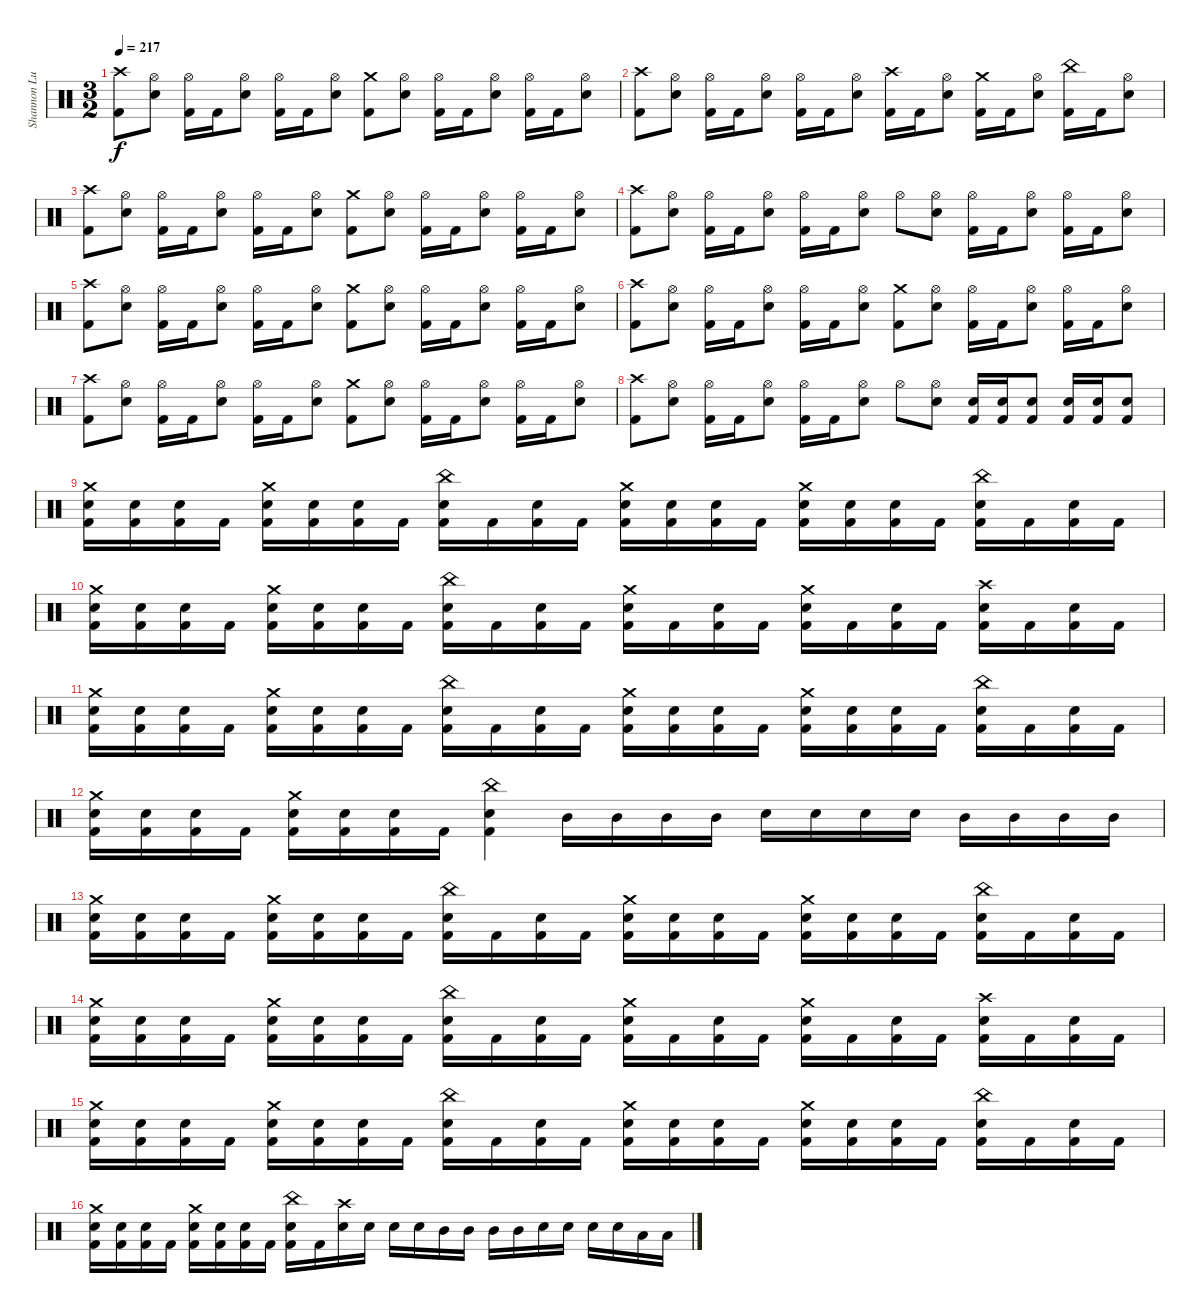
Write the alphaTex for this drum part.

\track ("Shannon Lucas [Drums (Since 2007)]" "Shannon Lu") {instrument percussion}
\staff {score}
\articulation defaults
\ts (3 2)
\tempo 217
\clef neutral
\ks c
("Crash high (hit)" "Kick (hit) 2").8{dy f} ("Hi-Hat (open)" "Snare (hit) 2").8 ("Hi-Hat (open)" "Kick (hit) 2").16 "Kick (hit) 2".16 ("Hi-Hat (open)" "Snare (hit) 2").8 ("Hi-Hat (open)" "Kick (hit) 2").16 "Kick (hit) 2".16 ("Hi-Hat (open)" "Snare (hit) 2").8 ("Crash medium (hit)" "Kick (hit) 2").8 ("Hi-Hat (open)" "Snare (hit) 2").8 ("Hi-Hat (open)" "Kick (hit) 2").16 "Kick (hit) 2".16 ("Hi-Hat (open)" "Snare (hit) 2").8 ("Hi-Hat (open)" "Kick (hit) 2").16 "Kick (hit) 2".16 ("Hi-Hat (open)" "Snare (hit) 2").8 |
("Crash high (hit)" "Kick (hit) 2").8 ("Hi-Hat (open)" "Snare (hit) 2").8 ("Hi-Hat (open)" "Kick (hit) 2").16 "Kick (hit) 2".16 ("Hi-Hat (open)" "Snare (hit) 2").8 ("Hi-Hat (open)" "Kick (hit) 2").16 "Kick (hit) 2".16 ("Hi-Hat (open)" "Snare (hit) 2").8 ("Crash high (hit)" "Kick (hit) 2").16 "Kick (hit) 2".16 ("Hi-Hat (open)" "Snare (hit) 2").8 ("Crash medium (hit)" "Kick (hit) 2").16 "Kick (hit) 2".16 ("Hi-Hat (open)" "Snare (hit) 2").8 ("China (hit)" "Kick (hit) 2").16 "Kick (hit) 2".16 ("Hi-Hat (open)" "Snare (hit) 2").8 |
("Crash high (hit)" "Kick (hit) 2").8 ("Hi-Hat (open)" "Snare (hit) 2").8 ("Hi-Hat (open)" "Kick (hit) 2").16 "Kick (hit) 2".16 ("Hi-Hat (open)" "Snare (hit) 2").8 ("Hi-Hat (open)" "Kick (hit) 2").16 "Kick (hit) 2".16 ("Hi-Hat (open)" "Snare (hit) 2").8 ("Crash medium (hit)" "Kick (hit) 2").8 ("Hi-Hat (open)" "Snare (hit) 2").8 ("Hi-Hat (open)" "Kick (hit) 2").16 "Kick (hit) 2".16 ("Hi-Hat (open)" "Snare (hit) 2").8 ("Hi-Hat (open)" "Kick (hit) 2").16 "Kick (hit) 2".16 ("Hi-Hat (open)" "Snare (hit) 2").8 |
("Crash high (hit)" "Kick (hit) 2").8 ("Hi-Hat (open)" "Snare (hit) 2").8 ("Hi-Hat (open)" "Kick (hit) 2").16 "Kick (hit) 2".16 ("Hi-Hat (open)" "Snare (hit) 2").8 ("Hi-Hat (open)" "Kick (hit) 2").16 "Kick (hit) 2".16 ("Hi-Hat (open)" "Snare (hit) 2").8 "Hi-Hat (open)".8 ("Hi-Hat (open)" "Snare (hit) 2").8 ("Hi-Hat (open)" "Kick (hit) 2").16 "Kick (hit) 2".16 ("Hi-Hat (open)" "Snare (hit) 2").8 ("Hi-Hat (open)" "Kick (hit) 2").16 "Kick (hit) 2".16 ("Hi-Hat (open)" "Snare (hit) 2").8 |
("Crash high (hit)" "Kick (hit) 2").8 ("Hi-Hat (open)" "Snare (hit) 2").8 ("Hi-Hat (open)" "Kick (hit) 2").16 "Kick (hit) 2".16 ("Hi-Hat (open)" "Snare (hit) 2").8 ("Hi-Hat (open)" "Kick (hit) 2").16 "Kick (hit) 2".16 ("Hi-Hat (open)" "Snare (hit) 2").8 ("Crash medium (hit)" "Kick (hit) 2").8 ("Hi-Hat (open)" "Snare (hit) 2").8 ("Hi-Hat (open)" "Kick (hit) 2").16 "Kick (hit) 2".16 ("Hi-Hat (open)" "Snare (hit) 2").8 ("Hi-Hat (open)" "Kick (hit) 2").16 "Kick (hit) 2".16 ("Hi-Hat (open)" "Snare (hit) 2").8 |
("Crash high (hit)" "Kick (hit) 2").8 ("Hi-Hat (open)" "Snare (hit) 2").8 ("Hi-Hat (open)" "Kick (hit) 2").16 "Kick (hit) 2".16 ("Hi-Hat (open)" "Snare (hit) 2").8 ("Hi-Hat (open)" "Kick (hit) 2").16 "Kick (hit) 2".16 ("Hi-Hat (open)" "Snare (hit) 2").8 ("Crash medium (hit)" "Kick (hit) 2").8 ("Hi-Hat (open)" "Snare (hit) 2").8 ("Hi-Hat (open)" "Kick (hit) 2").16 "Kick (hit) 2".16 ("Hi-Hat (open)" "Snare (hit) 2").8 ("Hi-Hat (open)" "Kick (hit) 2").16 "Kick (hit) 2".16 ("Hi-Hat (open)" "Snare (hit) 2").8 |
("Crash high (hit)" "Kick (hit) 2").8 ("Hi-Hat (open)" "Snare (hit) 2").8 ("Hi-Hat (open)" "Kick (hit) 2").16 "Kick (hit) 2".16 ("Hi-Hat (open)" "Snare (hit) 2").8 ("Hi-Hat (open)" "Kick (hit) 2").16 "Kick (hit) 2".16 ("Hi-Hat (open)" "Snare (hit) 2").8 ("Crash medium (hit)" "Kick (hit) 2").8 ("Hi-Hat (open)" "Snare (hit) 2").8 ("Hi-Hat (open)" "Kick (hit) 2").16 "Kick (hit) 2".16 ("Hi-Hat (open)" "Snare (hit) 2").8 ("Hi-Hat (open)" "Kick (hit) 2").16 "Kick (hit) 2".16 ("Hi-Hat (open)" "Snare (hit) 2").8 |
("Crash high (hit)" "Kick (hit) 2").8 ("Hi-Hat (open)" "Snare (hit) 2").8 ("Hi-Hat (open)" "Kick (hit) 2").16 "Kick (hit) 2".16 ("Hi-Hat (open)" "Snare (hit) 2").8 ("Hi-Hat (open)" "Kick (hit) 2").16 "Kick (hit) 2".16 ("Hi-Hat (open)" "Snare (hit) 2").8 "Hi-Hat (open)".8 ("Hi-Hat (open)" "Snare (hit) 2").8 ("Kick (hit) 2" "Snare (hit) 2").16 ("Kick (hit) 2" "Snare (hit) 2").16 ("Kick (hit) 2" "Snare (hit) 2").8 ("Kick (hit) 2" "Snare (hit) 2").16 ("Kick (hit) 2" "Snare (hit) 2").16 ("Kick (hit) 2" "Snare (hit) 2").8 |
("Crash medium (hit)" "Snare (hit) 2" "Kick (hit) 2").16 ("Snare (hit) 2" "Kick (hit) 2").16 ("Snare (hit) 2" "Kick (hit) 2").16 "Kick (hit) 2".16 ("Crash medium (hit)" "Snare (hit) 2" "Kick (hit) 2").16 ("Snare (hit) 2" "Kick (hit) 2").16 ("Snare (hit) 2" "Kick (hit) 2").16 "Kick (hit) 2".16 ("China (hit)" "Snare (hit) 2" "Kick (hit) 2").16 "Kick (hit) 2".16 ("Snare (hit) 2" "Kick (hit) 2").16 "Kick (hit) 2".16 ("Crash medium (hit)" "Snare (hit) 2" "Kick (hit) 2").16 ("Snare (hit) 2" "Kick (hit) 2").16 ("Snare (hit) 2" "Kick (hit) 2").16 "Kick (hit) 2".16 ("Crash medium (hit)" "Snare (hit) 2" "Kick (hit) 2").16 ("Snare (hit) 2" "Kick (hit) 2").16 ("Snare (hit) 2" "Kick (hit) 2").16 "Kick (hit) 2".16 ("China (hit)" "Snare (hit) 2" "Kick (hit) 2").16 "Kick (hit) 2".16 ("Snare (hit) 2" "Kick (hit) 2").16 "Kick (hit) 2".16 |
("Crash medium (hit)" "Snare (hit) 2" "Kick (hit) 2").16 ("Snare (hit) 2" "Kick (hit) 2").16 ("Snare (hit) 2" "Kick (hit) 2").16 "Kick (hit) 2".16 ("Crash medium (hit)" "Snare (hit) 2" "Kick (hit) 2").16 ("Snare (hit) 2" "Kick (hit) 2").16 ("Snare (hit) 2" "Kick (hit) 2").16 "Kick (hit) 2".16 ("China (hit)" "Snare (hit) 2" "Kick (hit) 2").16 "Kick (hit) 2".16 ("Snare (hit) 2" "Kick (hit) 2").16 "Kick (hit) 2".16 ("Crash medium (hit)" "Snare (hit) 2" "Kick (hit) 2").16 "Kick (hit) 2".16 ("Snare (hit) 2" "Kick (hit) 2").16 "Kick (hit) 2".16 ("Crash medium (hit)" "Snare (hit) 2" "Kick (hit) 2").16 "Kick (hit) 2".16 ("Snare (hit) 2" "Kick (hit) 2").16 "Kick (hit) 2".16 ("Crash high (hit)" "Snare (hit) 2" "Kick (hit) 2").16 "Kick (hit) 2".16 ("Snare (hit) 2" "Kick (hit) 2").16 "Kick (hit) 2".16 |
("Crash medium (hit)" "Snare (hit) 2" "Kick (hit) 2").16 ("Snare (hit) 2" "Kick (hit) 2").16 ("Snare (hit) 2" "Kick (hit) 2").16 "Kick (hit) 2".16 ("Crash medium (hit)" "Snare (hit) 2" "Kick (hit) 2").16 ("Snare (hit) 2" "Kick (hit) 2").16 ("Snare (hit) 2" "Kick (hit) 2").16 "Kick (hit) 2".16 ("China (hit)" "Snare (hit) 2" "Kick (hit) 2").16 "Kick (hit) 2".16 ("Snare (hit) 2" "Kick (hit) 2").16 "Kick (hit) 2".16 ("Crash medium (hit)" "Snare (hit) 2" "Kick (hit) 2").16 ("Snare (hit) 2" "Kick (hit) 2").16 ("Snare (hit) 2" "Kick (hit) 2").16 "Kick (hit) 2".16 ("Crash medium (hit)" "Snare (hit) 2" "Kick (hit) 2").16 ("Snare (hit) 2" "Kick (hit) 2").16 ("Snare (hit) 2" "Kick (hit) 2").16 "Kick (hit) 2".16 ("China (hit)" "Snare (hit) 2" "Kick (hit) 2").16 "Kick (hit) 2".16 ("Snare (hit) 2" "Kick (hit) 2").16 "Kick (hit) 2".16 |
("Crash medium (hit)" "Snare (hit) 2" "Kick (hit) 2").16 ("Snare (hit) 2" "Kick (hit) 2").16 ("Snare (hit) 2" "Kick (hit) 2").16 "Kick (hit) 2".16 ("Crash medium (hit)" "Snare (hit) 2" "Kick (hit) 2").16 ("Snare (hit) 2" "Kick (hit) 2").16 ("Snare (hit) 2" "Kick (hit) 2").16 "Kick (hit) 2".16 ("China (hit)" "Snare (hit) 2" "Kick (hit) 2").4 "Mid Tom (hit)".16 "Mid Tom (hit)".16 "Mid Tom (hit)".16 "Mid Tom (hit)".16 "Snare (hit) 2".16 "Snare (hit) 2".16 "Snare (hit) 2".16 "Snare (hit) 2".16 "Mid Tom (hit)".16 "Mid Tom (hit)".16 "Mid Tom (hit)".16 "Mid Tom (hit)".16 |
("Crash medium (hit)" "Snare (hit) 2" "Kick (hit) 2").16 ("Snare (hit) 2" "Kick (hit) 2").16 ("Snare (hit) 2" "Kick (hit) 2").16 "Kick (hit) 2".16 ("Crash medium (hit)" "Snare (hit) 2" "Kick (hit) 2").16 ("Snare (hit) 2" "Kick (hit) 2").16 ("Snare (hit) 2" "Kick (hit) 2").16 "Kick (hit) 2".16 ("China (hit)" "Snare (hit) 2" "Kick (hit) 2").16 "Kick (hit) 2".16 ("Snare (hit) 2" "Kick (hit) 2").16 "Kick (hit) 2".16 ("Crash medium (hit)" "Snare (hit) 2" "Kick (hit) 2").16 ("Snare (hit) 2" "Kick (hit) 2").16 ("Snare (hit) 2" "Kick (hit) 2").16 "Kick (hit) 2".16 ("Crash medium (hit)" "Snare (hit) 2" "Kick (hit) 2").16 ("Snare (hit) 2" "Kick (hit) 2").16 ("Snare (hit) 2" "Kick (hit) 2").16 "Kick (hit) 2".16 ("China (hit)" "Snare (hit) 2" "Kick (hit) 2").16 "Kick (hit) 2".16 ("Snare (hit) 2" "Kick (hit) 2").16 "Kick (hit) 2".16 |
("Crash medium (hit)" "Snare (hit) 2" "Kick (hit) 2").16 ("Snare (hit) 2" "Kick (hit) 2").16 ("Snare (hit) 2" "Kick (hit) 2").16 "Kick (hit) 2".16 ("Crash medium (hit)" "Snare (hit) 2" "Kick (hit) 2").16 ("Snare (hit) 2" "Kick (hit) 2").16 ("Snare (hit) 2" "Kick (hit) 2").16 "Kick (hit) 2".16 ("China (hit)" "Snare (hit) 2" "Kick (hit) 2").16 "Kick (hit) 2".16 ("Snare (hit) 2" "Kick (hit) 2").16 "Kick (hit) 2".16 ("Crash medium (hit)" "Snare (hit) 2" "Kick (hit) 2").16 "Kick (hit) 2".16 ("Snare (hit) 2" "Kick (hit) 2").16 "Kick (hit) 2".16 ("Crash medium (hit)" "Snare (hit) 2" "Kick (hit) 2").16 "Kick (hit) 2".16 ("Snare (hit) 2" "Kick (hit) 2").16 "Kick (hit) 2".16 ("Crash high (hit)" "Snare (hit) 2" "Kick (hit) 2").16 "Kick (hit) 2".16 ("Snare (hit) 2" "Kick (hit) 2").16 "Kick (hit) 2".16 |
("Crash medium (hit)" "Snare (hit) 2" "Kick (hit) 2").16 ("Snare (hit) 2" "Kick (hit) 2").16 ("Snare (hit) 2" "Kick (hit) 2").16 "Kick (hit) 2".16 ("Crash medium (hit)" "Snare (hit) 2" "Kick (hit) 2").16 ("Snare (hit) 2" "Kick (hit) 2").16 ("Snare (hit) 2" "Kick (hit) 2").16 "Kick (hit) 2".16 ("China (hit)" "Snare (hit) 2" "Kick (hit) 2").16 "Kick (hit) 2".16 ("Snare (hit) 2" "Kick (hit) 2").16 "Kick (hit) 2".16 ("Crash medium (hit)" "Snare (hit) 2" "Kick (hit) 2").16 ("Snare (hit) 2" "Kick (hit) 2").16 ("Snare (hit) 2" "Kick (hit) 2").16 "Kick (hit) 2".16 ("Crash medium (hit)" "Snare (hit) 2" "Kick (hit) 2").16 ("Snare (hit) 2" "Kick (hit) 2").16 ("Snare (hit) 2" "Kick (hit) 2").16 "Kick (hit) 2".16 ("China (hit)" "Snare (hit) 2" "Kick (hit) 2").16 "Kick (hit) 2".16 ("Snare (hit) 2" "Kick (hit) 2").16 "Kick (hit) 2".16 |
("Crash medium (hit)" "Snare (hit) 2" "Kick (hit) 2").16 ("Snare (hit) 2" "Kick (hit) 2").16 ("Snare (hit) 2" "Kick (hit) 2").16 "Kick (hit) 2".16 ("Crash medium (hit)" "Snare (hit) 2" "Kick (hit) 2").16 ("Snare (hit) 2" "Kick (hit) 2").16 ("Snare (hit) 2" "Kick (hit) 2").16 "Kick (hit) 2".16 ("China (hit)" "Snare (hit) 2" "Kick (hit) 2").16 "Kick (hit) 2".16 ("Crash high (hit)" "Snare (hit) 2").16 "Snare (hit) 2".16 "Snare (hit) 2".16 "Snare (hit) 2".16 "Mid Tom (hit)".16 "Mid Tom (hit)".16 "Mid Tom (hit)".16 "Mid Tom (hit)".16 "Snare (hit) 2".16 "Snare (hit) 2".16 "Snare (hit) 2".16 "Snare (hit) 2".16 "Low Tom (hit)".16 "Low Tom (hit)".16
